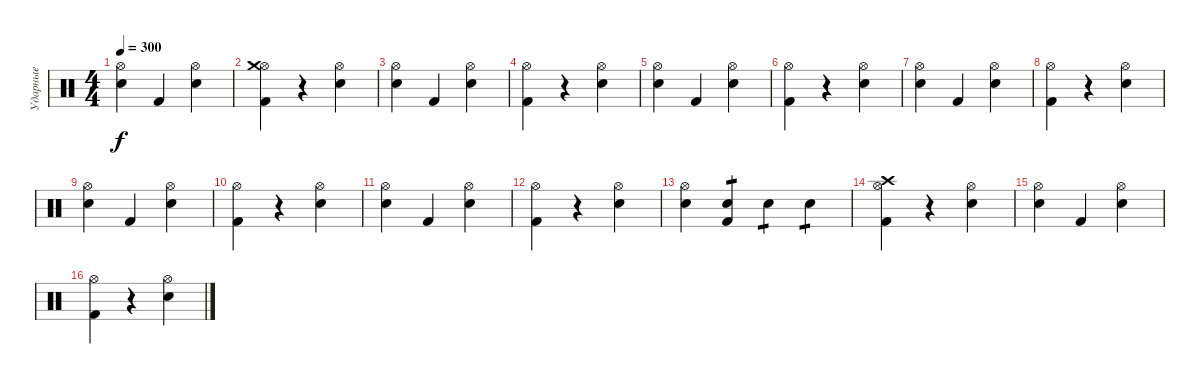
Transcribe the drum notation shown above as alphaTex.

\track ("Ударные" "Ударные") {instrument percussion}
\staff
\articulation defaults
\ts (4 4)
\tempo 300
\clef neutral
\ks c
("Snare (hit)" "Hi-Hat (open)").4{dy f} "Kick (hit) 2".4 ("Electric Snare (hit)" "Hi-Hat (open)").4 |
("Hi-Hat (open)" "Kick (hit) 2" "Crash medium (hit)").4 r.4 ("Electric Snare (hit)" "Hi-Hat (open)").4 |
("Snare (hit)" "Hi-Hat (open)").4 "Kick (hit) 2".4 ("Electric Snare (hit)" "Hi-Hat (open)").4 |
("Hi-Hat (open)" "Kick (hit) 2").4 r.4 ("Electric Snare (hit)" "Hi-Hat (open)").4 |
("Snare (hit)" "Hi-Hat (open)").4 "Kick (hit) 2".4 ("Electric Snare (hit)" "Hi-Hat (open)").4 |
("Hi-Hat (open)" "Kick (hit) 2").4 r.4 ("Electric Snare (hit)" "Hi-Hat (open)").4 |
("Snare (hit)" "Hi-Hat (open)").4 "Kick (hit) 2".4 ("Electric Snare (hit)" "Hi-Hat (open)").4 |
("Hi-Hat (open)" "Kick (hit) 2").4 r.4 ("Electric Snare (hit)" "Hi-Hat (open)").4 |
("Snare (hit)" "Hi-Hat (open)").4 "Kick (hit) 2".4 ("Electric Snare (hit)" "Hi-Hat (open)").4 |
("Hi-Hat (open)" "Kick (hit) 2").4 r.4 ("Electric Snare (hit)" "Hi-Hat (open)").4 |
("Snare (hit)" "Hi-Hat (open)").4 "Kick (hit) 2".4 ("Electric Snare (hit)" "Hi-Hat (open)").4 |
("Hi-Hat (open)" "Kick (hit) 2").4 r.4 ("Electric Snare (hit)" "Hi-Hat (open)").4 |
("Snare (hit)" "Hi-Hat (open)").4 ("Kick (hit) 2" "Electric Snare (hit)").4{tp 1} "Electric Snare (hit)".4{tp 1} "Electric Snare (hit)".4{tp 1} |
("Hi-Hat (open)" "Kick (hit) 2" "Crash high (hit)").4 r.4 ("Electric Snare (hit)" "Hi-Hat (open)").4 |
("Snare (hit)" "Hi-Hat (open)").4 "Kick (hit) 2".4 ("Electric Snare (hit)" "Hi-Hat (open)").4 |
("Hi-Hat (open)" "Kick (hit) 2").4 r.4 ("Electric Snare (hit)" "Hi-Hat (open)").4
